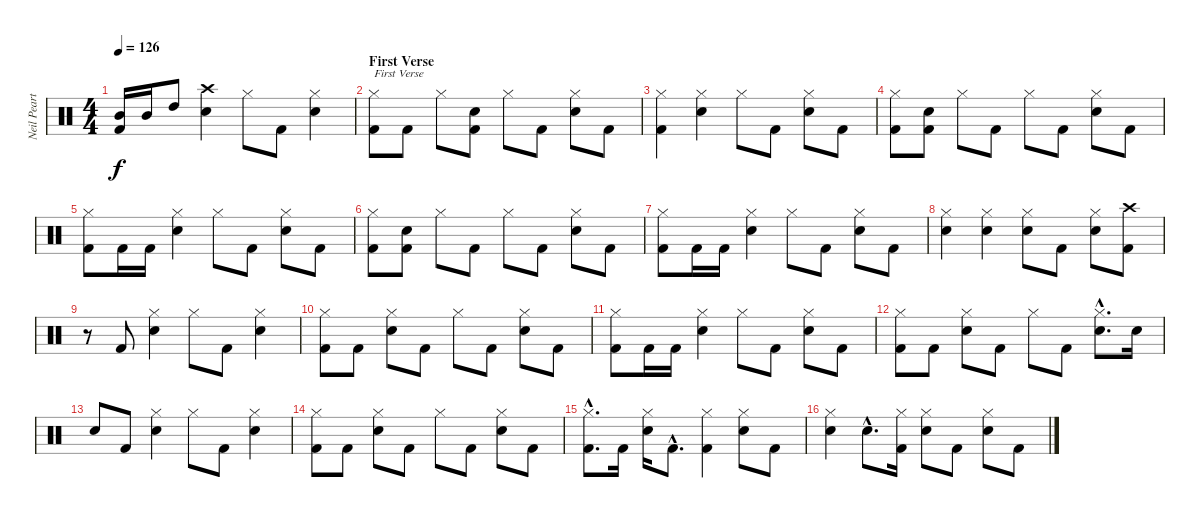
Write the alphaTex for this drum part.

\track ("Neil Peart" "Neil Peart") {instrument percussion}
\staff {score}
\articulation defaults
\ts (4 4)
\tempo 126
\clef neutral
\ks c
("Kick (hit) 2" "Mid Tom (hit)").16{dy f} "Mid Tom (hit)".16 "High Tom (hit)".8 ("Electric Snare (hit)" "Crash high (hit)").4 "Hi-Hat (closed)".8 "Kick (hit) 2".8 ("Electric Snare (hit)" "Hi-Hat (closed)").4 |
\section ("" "First Verse")
("Hi-Hat (closed)" "Kick (hit) 2").8{txt "First Verse"} "Kick (hit) 2".8 "Hi-Hat (closed)".8 ("Electric Snare (hit)" "Kick (hit) 2").8 "Hi-Hat (closed)".8 "Kick (hit) 2".8 ("Electric Snare (hit)" "Hi-Hat (closed)").8 "Kick (hit) 2".8 |
("Hi-Hat (closed)" "Kick (hit) 2").4 ("Electric Snare (hit)" "Hi-Hat (closed)").4 "Hi-Hat (closed)".8 "Kick (hit) 2".8 ("Electric Snare (hit)" "Hi-Hat (closed)").8 "Kick (hit) 2".8 |
("Hi-Hat (closed)" "Kick (hit) 2").8 ("Electric Snare (hit)" "Kick (hit) 2").8 "Hi-Hat (closed)".8 "Kick (hit) 2".8 "Hi-Hat (closed)".8 "Kick (hit) 2".8 ("Electric Snare (hit)" "Hi-Hat (closed)").8 "Kick (hit) 2".8 |
("Hi-Hat (closed)" "Kick (hit) 2").8 "Kick (hit) 2".16 "Kick (hit) 2".16 ("Electric Snare (hit)" "Hi-Hat (closed)").4 "Hi-Hat (closed)".8 "Kick (hit) 2".8 ("Electric Snare (hit)" "Hi-Hat (closed)").8 "Kick (hit) 2".8 |
("Hi-Hat (closed)" "Kick (hit) 2").8 ("Electric Snare (hit)" "Kick (hit) 2").8 "Hi-Hat (closed)".8 "Kick (hit) 2".8 "Hi-Hat (closed)".8 "Kick (hit) 2".8 ("Electric Snare (hit)" "Hi-Hat (closed)").8 "Kick (hit) 2".8 |
("Hi-Hat (closed)" "Kick (hit) 2").8 "Kick (hit) 2".16 "Kick (hit) 2".16 ("Electric Snare (hit)" "Hi-Hat (closed)").4 "Hi-Hat (closed)".8 "Kick (hit) 2".8 ("Electric Snare (hit)" "Hi-Hat (closed)").8 "Kick (hit) 2".8 |
("Electric Snare (hit)" "Hi-Hat (closed)").4 ("Electric Snare (hit)" "Hi-Hat (closed)").4 ("Electric Snare (hit)" "Hi-Hat (closed)").8 "Kick (hit) 2".8 ("Electric Snare (hit)" "Hi-Hat (closed)").8 ("Crash high (hit)" "Kick (hit) 2").8 |
r.8 "Kick (hit) 2".8 ("Electric Snare (hit)" "Hi-Hat (closed)").4 "Hi-Hat (closed)".8 "Kick (hit) 2".8 ("Electric Snare (hit)" "Hi-Hat (closed)").4 |
("Hi-Hat (closed)" "Kick (hit) 2").8 "Kick (hit) 2".8 ("Electric Snare (hit)" "Hi-Hat (closed)").8 "Kick (hit) 2".8 "Hi-Hat (closed)".8 "Kick (hit) 2".8 ("Electric Snare (hit)" "Hi-Hat (closed)").8 "Kick (hit) 2".8 |
("Hi-Hat (closed)" "Kick (hit) 2").8 "Kick (hit) 2".16 "Kick (hit) 2".16 ("Electric Snare (hit)" "Hi-Hat (closed)").4 "Hi-Hat (closed)".8 "Kick (hit) 2".8 ("Electric Snare (hit)" "Hi-Hat (closed)").8 "Kick (hit) 2".8 |
("Hi-Hat (closed)" "Kick (hit) 2").8 "Kick (hit) 2".8 ("Electric Snare (hit)" "Hi-Hat (closed)").8 "Kick (hit) 2".8 "Hi-Hat (closed)".8 "Kick (hit) 2".8 ("Electric Snare (hit)"{hac} "Hi-Hat (closed)"{hac}).8{d} "Electric Snare (hit)".16 |
"Electric Snare (hit)".8 "Kick (hit) 2".8 ("Electric Snare (hit)" "Hi-Hat (closed)").4 "Hi-Hat (closed)".8 "Kick (hit) 2".8 ("Electric Snare (hit)" "Hi-Hat (closed)").4 |
("Hi-Hat (closed)" "Kick (hit) 2").8 "Kick (hit) 2".8 ("Electric Snare (hit)" "Hi-Hat (closed)").8 "Kick (hit) 2".8 "Hi-Hat (closed)".8 "Kick (hit) 2".8 ("Electric Snare (hit)" "Hi-Hat (closed)").8 "Kick (hit) 2".8 |
("Hi-Hat (closed)"{hac} "Kick (hit) 2"{hac}).8{d} "Kick (hit) 2".16 ("Electric Snare (hit)" "Hi-Hat (closed)").16 "Kick (hit) 2"{hac}.8{d} ("Hi-Hat (closed)" "Kick (hit) 2").4 ("Electric Snare (hit)" "Hi-Hat (closed)").8 "Kick (hit) 2".8 |
("Electric Snare (hit)" "Hi-Hat (closed)").4 "Electric Snare (hit)"{hac}.8{d} ("Hi-Hat (closed)" "Kick (hit) 2").16 ("Electric Snare (hit)" "Hi-Hat (closed)").8 "Kick (hit) 2".8 ("Electric Snare (hit)" "Hi-Hat (closed)").8 "Kick (hit) 2".8
